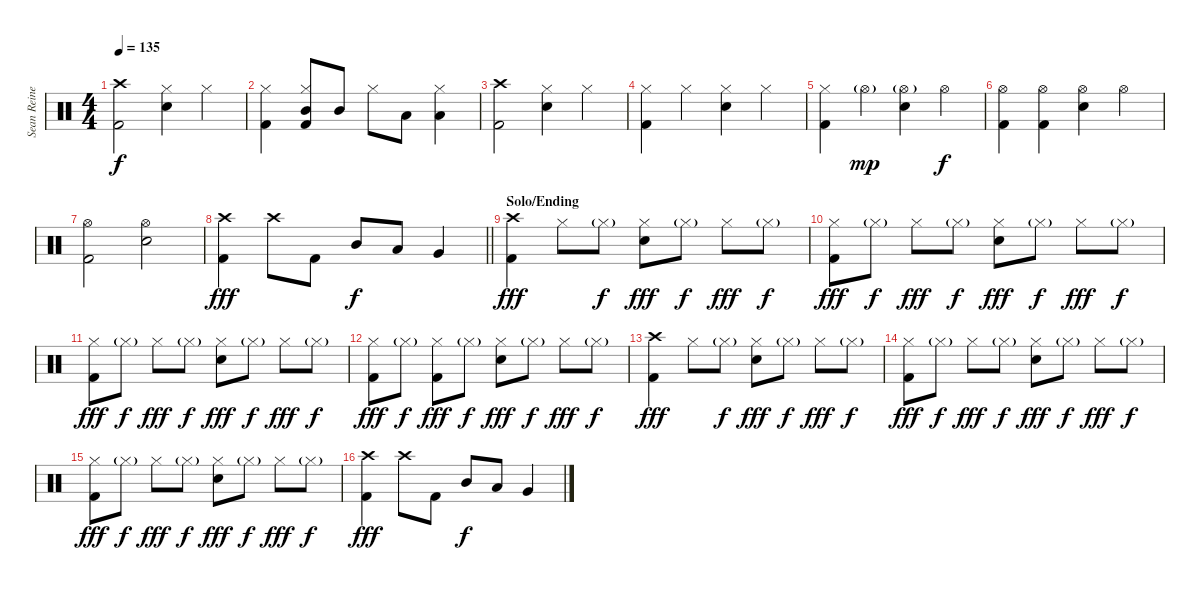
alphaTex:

\track ("Sean Reinert" "Sean Reine") {instrument percussion}
\staff {score}
\articulation defaults
\ts (4 4)
\tempo 135
\clef neutral
\ks c
("Crash high (hit)" "Kick (hit) 2").2{dy f} ("Hi-Hat (closed)" "Snare (hit) 2").4 "Hi-Hat (closed)".4 |
("Hi-Hat (closed)" "Kick (hit) 2").4 ("Hi-Hat (closed)" "Mid Tom (hit)" "Kick (hit) 2").8 "Mid Tom (hit)".8 "Hi-Hat (closed)".8 "Low Tom (hit)".8 ("Hi-Hat (closed)" "Low Tom (hit)").4 |
("Crash high (hit)" "Kick (hit) 2").2 ("Hi-Hat (closed)" "Snare (hit) 2").4 "Hi-Hat (closed)".4 |
("Hi-Hat (closed)" "Kick (hit) 2").4 "Hi-Hat (closed)".4 ("Hi-Hat (closed)" "Snare (hit) 2").4 "Hi-Hat (closed)".4 |
("Hi-Hat (closed)" "Kick (hit) 2").4 "Hi-Hat (open)"{g}.4{dy mp} ("Hi-Hat (open)"{g} "Snare (hit) 2").4 "Hi-Hat (open)".4{dy f} |
("Hi-Hat (open)" "Kick (hit) 2").4 ("Hi-Hat (open)" "Kick (hit) 2").4 ("Hi-Hat (open)" "Snare (hit) 2").4 "Hi-Hat (open)".4 |
("Hi-Hat (open)" "Kick (hit) 2").2 ("Hi-Hat (open)" "Snare (hit) 2").2 |
\barLineRight lightlight
("Crash high (hit)" "Kick (hit) 2").4{dy fff} "Crash high (hit)".8 "Kick (hit) 2".8 "Mid Tom (hit)".8{dy f} "Low Tom (hit)".8 "Very Low Tom (hit)".4 |
\section ("" "Solo/Ending")
("Crash high (hit)" "Kick (hit) 2").4{dy fff} "Hi-Hat (closed)".8 "Hi-Hat (closed)"{g}.8{dy f} ("Hi-Hat (closed)" "Snare (hit) 2").8{dy fff} "Hi-Hat (closed)"{g}.8{dy f} "Hi-Hat (closed)".8{dy fff} "Hi-Hat (closed)"{g}.8{dy f} |
("Hi-Hat (closed)" "Kick (hit) 2").8{dy fff} "Hi-Hat (closed)"{g}.8{dy f} "Hi-Hat (closed)".8{dy fff} "Hi-Hat (closed)"{g}.8{dy f} ("Hi-Hat (closed)" "Snare (hit) 2").8{dy fff} "Hi-Hat (closed)"{g}.8{dy f} "Hi-Hat (closed)".8{dy fff} "Hi-Hat (closed)"{g}.8{dy f} |
("Hi-Hat (closed)" "Kick (hit) 2").8{dy fff} "Hi-Hat (closed)"{g}.8{dy f} "Hi-Hat (closed)".8{dy fff} "Hi-Hat (closed)"{g}.8{dy f} ("Hi-Hat (closed)" "Snare (hit) 2").8{dy fff} "Hi-Hat (closed)"{g}.8{dy f} "Hi-Hat (closed)".8{dy fff} "Hi-Hat (closed)"{g}.8{dy f} |
("Hi-Hat (closed)" "Kick (hit) 2").8{dy fff} "Hi-Hat (closed)"{g}.8{dy f} ("Hi-Hat (closed)" "Kick (hit) 2").8{dy fff} "Hi-Hat (closed)"{g}.8{dy f} ("Hi-Hat (closed)" "Snare (hit) 2").8{dy fff} "Hi-Hat (closed)"{g}.8{dy f} "Hi-Hat (closed)".8{dy fff} "Hi-Hat (closed)"{g}.8{dy f} |
("Crash high (hit)" "Kick (hit) 2").4{dy fff} "Hi-Hat (closed)".8 "Hi-Hat (closed)"{g}.8{dy f} ("Hi-Hat (closed)" "Snare (hit) 2").8{dy fff} "Hi-Hat (closed)"{g}.8{dy f} "Hi-Hat (closed)".8{dy fff} "Hi-Hat (closed)"{g}.8{dy f} |
("Hi-Hat (closed)" "Kick (hit) 2").8{dy fff} "Hi-Hat (closed)"{g}.8{dy f} "Hi-Hat (closed)".8{dy fff} "Hi-Hat (closed)"{g}.8{dy f} ("Hi-Hat (closed)" "Snare (hit) 2").8{dy fff} "Hi-Hat (closed)"{g}.8{dy f} "Hi-Hat (closed)".8{dy fff} "Hi-Hat (closed)"{g}.8{dy f} |
("Hi-Hat (closed)" "Kick (hit) 2").8{dy fff} "Hi-Hat (closed)"{g}.8{dy f} "Hi-Hat (closed)".8{dy fff} "Hi-Hat (closed)"{g}.8{dy f} ("Hi-Hat (closed)" "Snare (hit) 2").8{dy fff} "Hi-Hat (closed)"{g}.8{dy f} "Hi-Hat (closed)".8{dy fff} "Hi-Hat (closed)"{g}.8{dy f} |
("Crash high (hit)" "Kick (hit) 2").4{dy fff} "Crash high (hit)".8 "Kick (hit) 2".8 "Mid Tom (hit)".8{dy f} "Low Tom (hit)".8 "Very Low Tom (hit)".4
